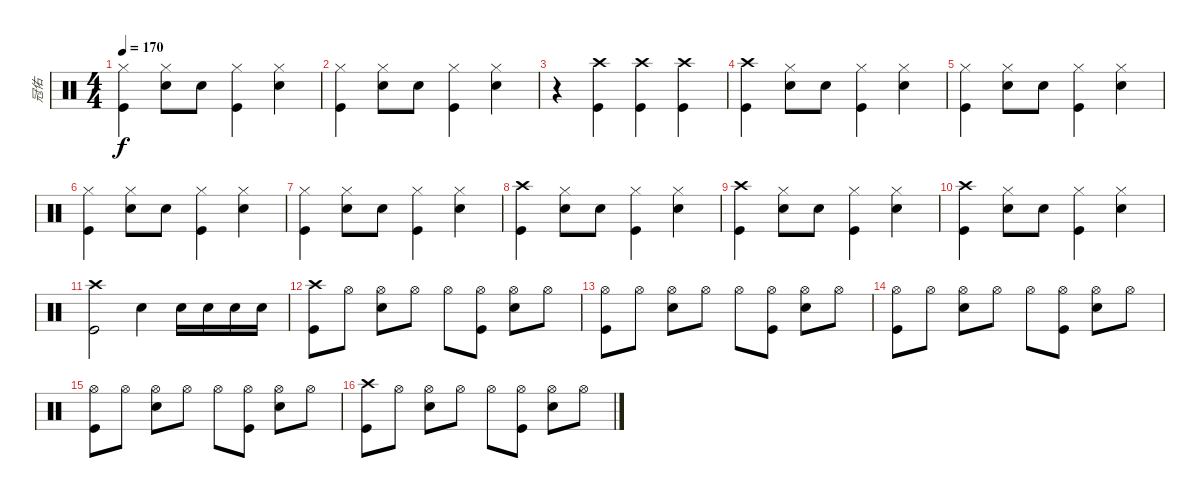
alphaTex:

\track ("冠佑" "冠佑") {instrument percussion}
\staff {score}
\articulation defaults
\ts (4 4)
\tempo 170
\clef neutral
\ks c
("Hi-Hat (closed)" "Kick (hit)").4{dy f} ("Hi-Hat (closed)" "Snare (hit) 2").8 "Snare (hit) 2".8 ("Hi-Hat (closed)" "Kick (hit)").4 ("Hi-Hat (closed)" "Snare (hit) 2").4 |
("Hi-Hat (closed)" "Kick (hit)").4 ("Hi-Hat (closed)" "Snare (hit) 2").8 "Snare (hit) 2".8 ("Hi-Hat (closed)" "Kick (hit)").4 ("Hi-Hat (closed)" "Snare (hit) 2").4 |
r.4 ("Crash high (hit)" "Kick (hit)").4 ("Crash high (hit)" "Kick (hit)").4 ("Crash high (hit)" "Kick (hit)").4 |
("Crash high (hit)" "Kick (hit)").4 ("Hi-Hat (closed)" "Snare (hit) 2").8 "Snare (hit) 2".8 ("Hi-Hat (closed)" "Kick (hit)").4 ("Hi-Hat (closed)" "Snare (hit) 2").4 |
("Hi-Hat (closed)" "Kick (hit)").4 ("Hi-Hat (closed)" "Snare (hit) 2").8 "Snare (hit) 2".8 ("Hi-Hat (closed)" "Kick (hit)").4 ("Hi-Hat (closed)" "Snare (hit) 2").4 |
("Hi-Hat (closed)" "Kick (hit)").4 ("Hi-Hat (closed)" "Snare (hit) 2").8 "Snare (hit) 2".8 ("Hi-Hat (closed)" "Kick (hit)").4 ("Hi-Hat (closed)" "Snare (hit) 2").4 |
("Hi-Hat (closed)" "Kick (hit)").4 ("Hi-Hat (closed)" "Snare (hit) 2").8 "Snare (hit) 2".8 ("Hi-Hat (closed)" "Kick (hit)").4 ("Hi-Hat (closed)" "Snare (hit) 2").4 |
("Crash high (hit)" "Kick (hit)").4 ("Hi-Hat (closed)" "Snare (hit) 2").8 "Snare (hit) 2".8 ("Hi-Hat (closed)" "Kick (hit)").4 ("Hi-Hat (closed)" "Snare (hit) 2").4 |
("Crash high (hit)" "Kick (hit)").4 ("Hi-Hat (closed)" "Snare (hit) 2").8 "Snare (hit) 2".8 ("Hi-Hat (closed)" "Kick (hit)").4 ("Hi-Hat (closed)" "Snare (hit) 2").4 |
("Crash high (hit)" "Kick (hit)").4 ("Hi-Hat (closed)" "Snare (hit) 2").8 "Snare (hit) 2".8 ("Hi-Hat (closed)" "Kick (hit)").4 ("Hi-Hat (closed)" "Snare (hit) 2").4 |
("Crash high (hit)" "Kick (hit)").2 "Snare (hit) 2".4 "Snare (hit) 2".16 "Snare (hit) 2".16 "Snare (hit) 2".16 "Snare (hit) 2".16 |
("Crash high (hit)" "Kick (hit)").8 "Hi-Hat (open)".8 ("Hi-Hat (open)" "Snare (hit) 2").8 "Hi-Hat (open)".8 "Hi-Hat (open)".8 ("Hi-Hat (open)" "Kick (hit)").8 ("Hi-Hat (open)" "Snare (hit) 2").8 "Hi-Hat (open)".8 |
("Hi-Hat (open)" "Kick (hit)").8 "Hi-Hat (open)".8 ("Hi-Hat (open)" "Snare (hit) 2").8 "Hi-Hat (open)".8 "Hi-Hat (open)".8 ("Hi-Hat (open)" "Kick (hit)").8 ("Hi-Hat (open)" "Snare (hit) 2").8 "Hi-Hat (open)".8 |
("Hi-Hat (open)" "Kick (hit)").8 "Hi-Hat (open)".8 ("Hi-Hat (open)" "Snare (hit) 2").8 "Hi-Hat (open)".8 "Hi-Hat (open)".8 ("Hi-Hat (open)" "Kick (hit)").8 ("Hi-Hat (open)" "Snare (hit) 2").8 "Hi-Hat (open)".8 |
("Hi-Hat (open)" "Kick (hit)").8 "Hi-Hat (open)".8 ("Hi-Hat (open)" "Snare (hit) 2").8 "Hi-Hat (open)".8 "Hi-Hat (open)".8 ("Hi-Hat (open)" "Kick (hit)").8 ("Hi-Hat (open)" "Snare (hit) 2").8 "Hi-Hat (open)".8 |
("Crash high (hit)" "Kick (hit)").8 "Hi-Hat (open)".8 ("Hi-Hat (open)" "Snare (hit) 2").8 "Hi-Hat (open)".8 "Hi-Hat (open)".8 ("Hi-Hat (open)" "Kick (hit)").8 ("Hi-Hat (open)" "Snare (hit) 2").8 "Hi-Hat (open)".8
